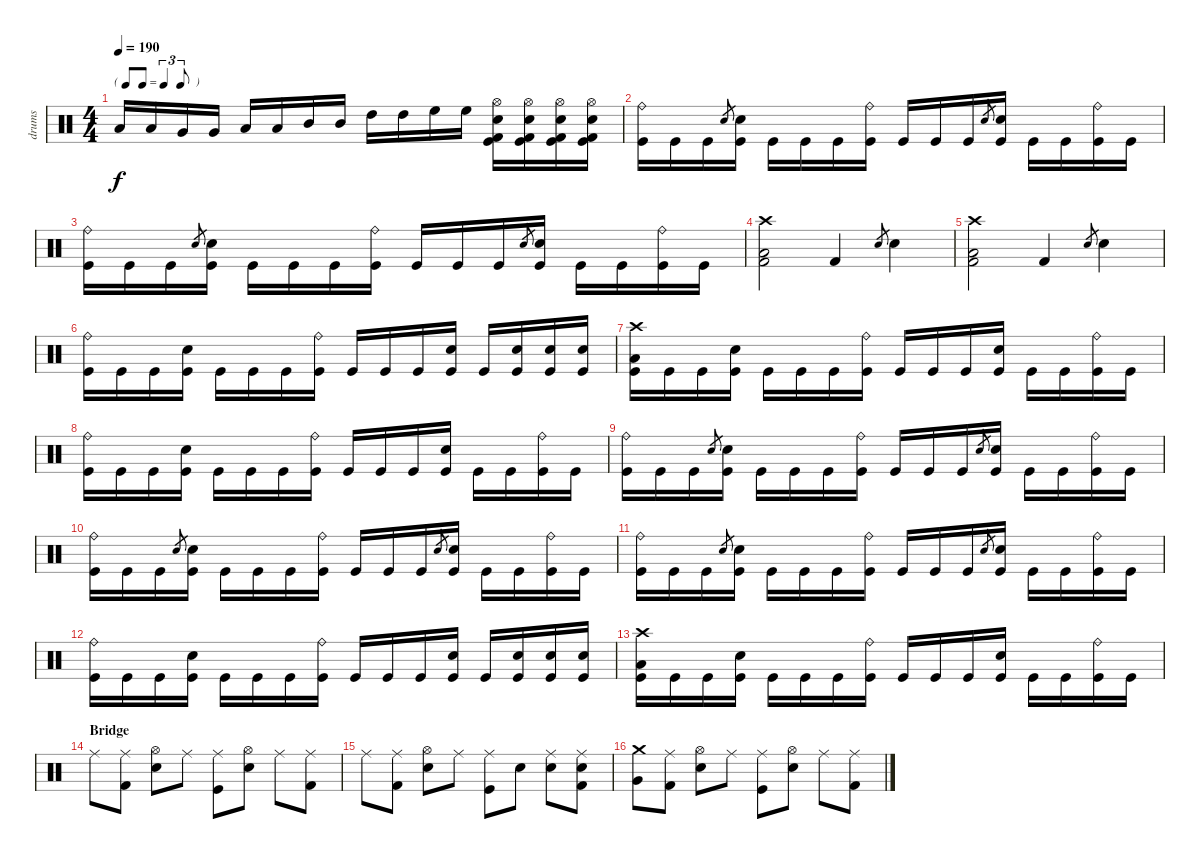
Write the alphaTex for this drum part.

\track ("drums" "drums") {instrument percussion}
\staff {score}
\articulation defaults
\ts (4 4)
\tf triplet8th
\tempo 190
\clef neutral
\ks c "Low Floor Tom (hit)".16{dy f} "Low Floor Tom (hit)".16 "Very Low Tom (hit)".16 "Very Low Tom (hit)".16 "Low Tom (hit)".16 "Low Tom (hit)".16 "Mid Tom (hit)".16 "Mid Tom (hit)".16 "High Tom (hit)".16 "High Tom (hit)".16 "High Floor Tom (hit)".16 "High Floor Tom (hit)".16
("Hi-Hat (open)" "Snare (hit) 2" "Kick (hit) 2" "Kick (hit)").16 ("Hi-Hat (open)" "Snare (hit) 2" "Kick (hit) 2" "Kick (hit)").16 ("Hi-Hat (open)" "Snare (hit) 2" "Kick (hit) 2" "Kick (hit)").16 ("Hi-Hat (open)" "Snare (hit) 2" "Kick (hit) 2" "Kick (hit)").16 |
("Kick (hit)" "Ride (bell)").16 "Kick (hit)".16 "Kick (hit)".16 "Electric Snare (hit)".8{gr} ("Kick (hit)" "Electric Snare (hit)").16 "Kick (hit)".16 "Kick (hit)".16 "Kick (hit)".16 ("Kick (hit)" "Ride (bell)").16 "Kick (hit)".16 "Kick (hit)".16 "Kick (hit)".16 "Electric Snare (hit)".8{gr} ("Kick (hit)" "Electric Snare (hit)").16 "Kick (hit)".16 "Kick (hit)".16 ("Kick (hit)" "Ride (bell)").16 "Kick (hit)".16 |
("Kick (hit)" "Ride (bell)").16 "Kick (hit)".16 "Kick (hit)".16 "Electric Snare (hit)".8{gr} ("Kick (hit)" "Electric Snare (hit)").16 "Kick (hit)".16 "Kick (hit)".16 "Kick (hit)".16 ("Kick (hit)" "Ride (bell)").16 "Kick (hit)".16 "Kick (hit)".16 "Kick (hit)".16 "Electric Snare (hit)".8{gr} ("Kick (hit)" "Electric Snare (hit)").16 "Kick (hit)".16 "Kick (hit)".16 ("Kick (hit)" "Ride (bell)").16 "Kick (hit)".16 |
("Crash high (hit)" "Low Floor Tom (hit)" "Kick (hit) 2").2 "Kick (hit) 2".4 "Snare (hit) 2".8{gr} "Snare (hit) 2".4 |
("Crash high (hit)" "Low Floor Tom (hit)" "Kick (hit) 2").2 "Kick (hit) 2".4 "Snare (hit) 2".8{gr} "Snare (hit) 2".4 |
("Kick (hit)" "Ride (bell)").16 "Kick (hit)".16 "Kick (hit)".16 ("Kick (hit)" "Electric Snare (hit)").16 "Kick (hit)".16 "Kick (hit)".16 "Kick (hit)".16 ("Kick (hit)" "Ride (bell)").16 "Kick (hit)".16 "Kick (hit)".16 "Kick (hit)".16 ("Kick (hit)" "Electric Snare (hit)").16 "Kick (hit)".16 ("Kick (hit)" "Snare (hit) 2").16 ("Kick (hit)" "Snare (hit) 2").16 ("Kick (hit)" "Snare (hit) 2").16 |
("Kick (hit)" "Crash high (hit)" "Low Floor Tom (hit)").16 "Kick (hit)".16 "Kick (hit)".16 ("Kick (hit)" "Electric Snare (hit)").16 "Kick (hit)".16 "Kick (hit)".16 "Kick (hit)".16 ("Kick (hit)" "Ride (bell)").16 "Kick (hit)".16 "Kick (hit)".16 "Kick (hit)".16 ("Kick (hit)" "Electric Snare (hit)").16 "Kick (hit)".16 "Kick (hit)".16 ("Kick (hit)" "Ride (bell)").16 "Kick (hit)".16 |
("Kick (hit)" "Ride (bell)").16 "Kick (hit)".16 "Kick (hit)".16 ("Kick (hit)" "Electric Snare (hit)").16 "Kick (hit)".16 "Kick (hit)".16 "Kick (hit)".16 ("Kick (hit)" "Ride (bell)").16 "Kick (hit)".16 "Kick (hit)".16 "Kick (hit)".16 ("Kick (hit)" "Electric Snare (hit)").16 "Kick (hit)".16 "Kick (hit)".16 ("Kick (hit)" "Ride (bell)").16 "Kick (hit)".16 |
("Kick (hit)" "Ride (bell)").16 "Kick (hit)".16 "Kick (hit)".16 "Electric Snare (hit)".8{gr} ("Kick (hit)" "Electric Snare (hit)").16 "Kick (hit)".16 "Kick (hit)".16 "Kick (hit)".16 ("Kick (hit)" "Ride (bell)").16 "Kick (hit)".16 "Kick (hit)".16 "Kick (hit)".16 "Electric Snare (hit)".8{gr} ("Kick (hit)" "Electric Snare (hit)").16 "Kick (hit)".16 "Kick (hit)".16 ("Kick (hit)" "Ride (bell)").16 "Kick (hit)".16 |
("Kick (hit)" "Ride (bell)").16 "Kick (hit)".16 "Kick (hit)".16 "Electric Snare (hit)".8{gr} ("Kick (hit)" "Electric Snare (hit)").16 "Kick (hit)".16 "Kick (hit)".16 "Kick (hit)".16 ("Kick (hit)" "Ride (bell)").16 "Kick (hit)".16 "Kick (hit)".16 "Kick (hit)".16 "Electric Snare (hit)".8{gr} ("Kick (hit)" "Electric Snare (hit)").16 "Kick (hit)".16 "Kick (hit)".16 ("Kick (hit)" "Ride (bell)").16 "Kick (hit)".16 |
("Kick (hit)" "Ride (bell)").16 "Kick (hit)".16 "Kick (hit)".16 "Electric Snare (hit)".8{gr} ("Kick (hit)" "Electric Snare (hit)").16 "Kick (hit)".16 "Kick (hit)".16 "Kick (hit)".16 ("Kick (hit)" "Ride (bell)").16 "Kick (hit)".16 "Kick (hit)".16 "Kick (hit)".16 "Electric Snare (hit)".8{gr} ("Kick (hit)" "Electric Snare (hit)").16 "Kick (hit)".16 "Kick (hit)".16 ("Kick (hit)" "Ride (bell)").16 "Kick (hit)".16 |
("Kick (hit)" "Ride (bell)").16 "Kick (hit)".16 "Kick (hit)".16 ("Kick (hit)" "Electric Snare (hit)").16 "Kick (hit)".16 "Kick (hit)".16 "Kick (hit)".16 ("Kick (hit)" "Ride (bell)").16 "Kick (hit)".16 "Kick (hit)".16 "Kick (hit)".16 ("Kick (hit)" "Electric Snare (hit)").16 "Kick (hit)".16 ("Kick (hit)" "Snare (hit) 2").16 ("Kick (hit)" "Snare (hit) 2").16 ("Kick (hit)" "Snare (hit) 2").16 |
("Kick (hit)" "Crash high (hit)" "Low Floor Tom (hit)").16 "Kick (hit)".16 "Kick (hit)".16 ("Kick (hit)" "Electric Snare (hit)").16 "Kick (hit)".16 "Kick (hit)".16 "Kick (hit)".16 ("Kick (hit)" "Ride (bell)").16 "Kick (hit)".16 "Kick (hit)".16 "Kick (hit)".16 ("Kick (hit)" "Electric Snare (hit)").16 "Kick (hit)".16 "Kick (hit)".16 ("Kick (hit)" "Ride (bell)").16 "Kick (hit)".16 |
\section ("" "Bridge")
"Ride (middle)".8 ("Ride (middle)" "Kick (hit) 2").8 ("Hi-Hat (open)" "Snare (hit) 2").8 "Ride (middle)".8 ("Ride (middle)" "Kick (hit)").8 ("Hi-Hat (open)" "Snare (hit) 2").8 "Ride (middle)".8 ("Ride (middle)" "Kick (hit) 2").8 |
"Ride (middle)".8 ("Ride (middle)" "Kick (hit) 2").8 ("Hi-Hat (open)" "Snare (hit) 2").8 "Ride (middle)".8 ("Ride (middle)" "Kick (hit)").8 "Snare (hit) 2".8 ("Ride (middle)" "Snare (hit) 2").8 ("Ride (middle)" "Snare (hit) 2" "Kick (hit) 2").8 |
("Crash medium (hit)" "Very Low Tom (hit)").8 ("Ride (middle)" "Kick (hit) 2").8 ("Hi-Hat (open)" "Snare (hit) 2").8 "Ride (middle)".8 ("Ride (middle)" "Kick (hit)").8 ("Hi-Hat (open)" "Snare (hit) 2").8 "Ride (middle)".8 ("Ride (middle)" "Kick (hit) 2").8
